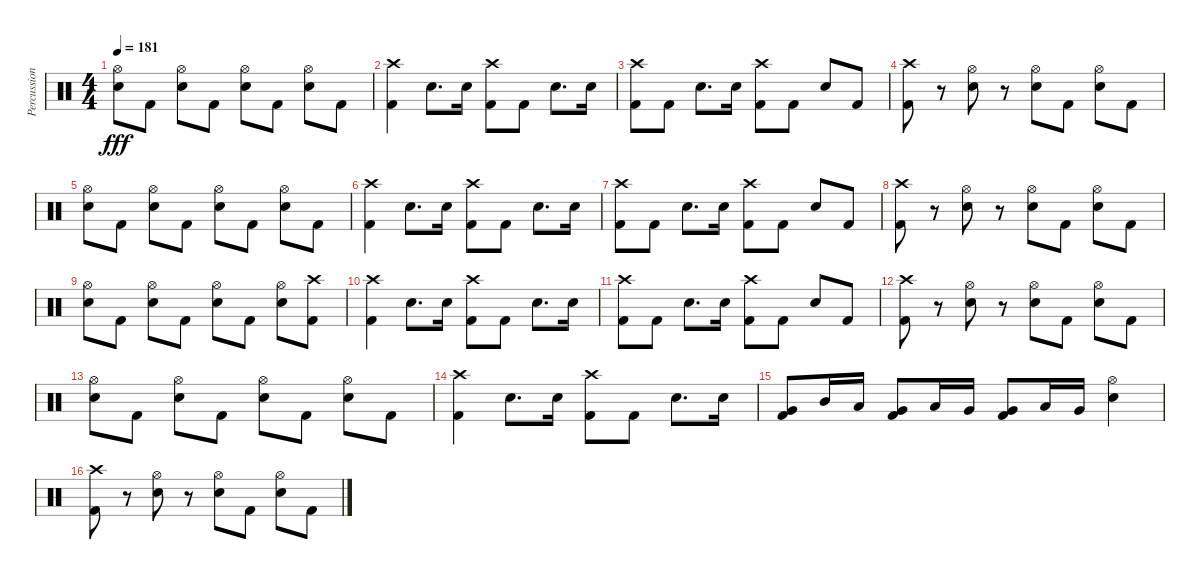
\track ("Percussion" "Percussion") {instrument percussion}
\staff {score}
\articulation defaults
\ts (4 4)
\tempo 181
\clef neutral
\ks c
("Electric Snare (hit)" "Hi-Hat (open)").8{dy fff} "Kick (hit) 2".8 ("Electric Snare (hit)" "Hi-Hat (open)").8 "Kick (hit) 2".8 ("Electric Snare (hit)" "Hi-Hat (open)").8 "Kick (hit) 2".8 ("Electric Snare (hit)" "Hi-Hat (open)").8 "Kick (hit) 2".8 |
("Kick (hit) 2" "Crash high (hit)").4 "Electric Snare (hit)".8{d} "Electric Snare (hit)".16 ("Kick (hit) 2" "Crash high (hit)").8 "Kick (hit) 2".8 "Electric Snare (hit)".8{d} "Electric Snare (hit)".16 |
("Kick (hit) 2" "Crash high (hit)").8 "Kick (hit) 2".8 "Electric Snare (hit)".8{d} "Electric Snare (hit)".16 ("Kick (hit) 2" "Crash high (hit)").8 "Kick (hit) 2".8 "Electric Snare (hit)".8 "Kick (hit) 2".8 |
("Crash high (hit)" "Kick (hit) 2").8 r.8 ("Electric Snare (hit)" "Hi-Hat (open)").8 r.8 ("Electric Snare (hit)" "Hi-Hat (open)").8 "Kick (hit) 2".8 ("Electric Snare (hit)" "Hi-Hat (open)").8 "Kick (hit) 2".8 |
("Electric Snare (hit)" "Hi-Hat (open)").8 "Kick (hit) 2".8 ("Electric Snare (hit)" "Hi-Hat (open)").8 "Kick (hit) 2".8 ("Electric Snare (hit)" "Hi-Hat (open)").8 "Kick (hit) 2".8 ("Electric Snare (hit)" "Hi-Hat (open)").8 "Kick (hit) 2".8 |
("Kick (hit) 2" "Crash high (hit)").4 "Electric Snare (hit)".8{d} "Electric Snare (hit)".16 ("Kick (hit) 2" "Crash high (hit)").8 "Kick (hit) 2".8 "Electric Snare (hit)".8{d} "Electric Snare (hit)".16 |
("Kick (hit) 2" "Crash high (hit)").8 "Kick (hit) 2".8 "Electric Snare (hit)".8{d} "Electric Snare (hit)".16 ("Kick (hit) 2" "Crash high (hit)").8 "Kick (hit) 2".8 "Electric Snare (hit)".8 "Kick (hit) 2".8 |
("Crash high (hit)" "Kick (hit) 2").8 r.8 ("Electric Snare (hit)" "Hi-Hat (open)").8 r.8 ("Electric Snare (hit)" "Hi-Hat (open)").8 "Kick (hit) 2".8 ("Electric Snare (hit)" "Hi-Hat (open)").8 "Kick (hit) 2".8 |
("Electric Snare (hit)" "Hi-Hat (open)").8 "Kick (hit) 2".8 ("Electric Snare (hit)" "Hi-Hat (open)").8 "Kick (hit) 2".8 ("Electric Snare (hit)" "Hi-Hat (open)").8 "Kick (hit) 2".8 ("Electric Snare (hit)" "Hi-Hat (open)").8 ("Kick (hit) 2" "Crash high (hit)").8 |
("Kick (hit) 2" "Crash high (hit)").4 "Electric Snare (hit)".8{d} "Electric Snare (hit)".16 ("Kick (hit) 2" "Crash high (hit)").8 "Kick (hit) 2".8 "Electric Snare (hit)".8{d} "Electric Snare (hit)".16 |
("Kick (hit) 2" "Crash high (hit)").8 "Kick (hit) 2".8 "Electric Snare (hit)".8{d} "Electric Snare (hit)".16 ("Kick (hit) 2" "Crash high (hit)").8 "Kick (hit) 2".8 "Electric Snare (hit)".8 "Kick (hit) 2".8 |
("Crash high (hit)" "Kick (hit) 2").8 r.8 ("Electric Snare (hit)" "Hi-Hat (open)").8 r.8 ("Electric Snare (hit)" "Hi-Hat (open)").8 "Kick (hit) 2".8 ("Electric Snare (hit)" "Hi-Hat (open)").8 "Kick (hit) 2".8 |
("Electric Snare (hit)" "Hi-Hat (open)").8 "Kick (hit) 2".8 ("Electric Snare (hit)" "Hi-Hat (open)").8 "Kick (hit) 2".8 ("Electric Snare (hit)" "Hi-Hat (open)").8 "Kick (hit) 2".8 ("Electric Snare (hit)" "Hi-Hat (open)").8 "Kick (hit) 2".8 |
("Kick (hit) 2" "Crash high (hit)").4 "Electric Snare (hit)".8{d} "Electric Snare (hit)".16 ("Kick (hit) 2" "Crash high (hit)").8 "Kick (hit) 2".8 "Electric Snare (hit)".8{d} "Electric Snare (hit)".16 |
("Kick (hit) 2" "Very Low Tom (hit)").8 "Mid Tom (hit)".16 "Low Tom (hit)".16 ("Kick (hit) 2" "Very Low Tom (hit)").8 "Low Tom (hit)".16 "Very Low Tom (hit)".16 ("Kick (hit) 2" "Very Low Tom (hit)").8 "Low Tom (hit)".16 "Very Low Tom (hit)".16 ("Electric Snare (hit)" "Hi-Hat (open)").4 |
("Crash high (hit)" "Kick (hit) 2").8 r.8 ("Electric Snare (hit)" "Hi-Hat (open)").8 r.8 ("Electric Snare (hit)" "Hi-Hat (open)").8 "Kick (hit) 2".8 ("Electric Snare (hit)" "Hi-Hat (open)").8 "Kick (hit) 2".8
